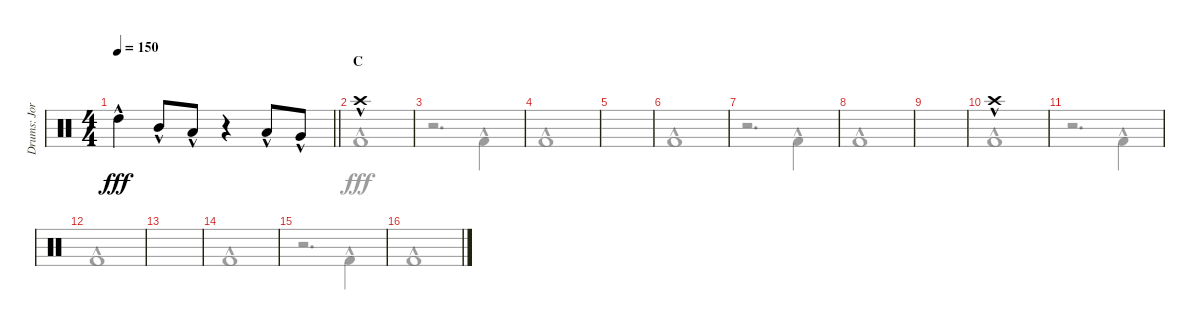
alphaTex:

\track ("Drums: Jorg" "Drums: Jor") {instrument percussion}
\staff {score}
\articulation defaults
\voice
\ts (4 4)
\tempo 150
\clef neutral
\barLineRight lightlight
\ks c "High Tom (hit)"{hac}.4{dy fff} "Mid Tom (hit)"{hac}.8 "Low Tom (hit)"{hac}.8
r.4 "Low Tom (hit)"{hac}.8 "Very Low Tom (hit)"{hac}.8 |
\section ("" "C")
"Crash high (hit)"{hac}.1 |
|
|
|
|
|
|
|
"Crash high (hit)"{hac}.1 |
|
|
|
|
|
\voice
\clef neutral
\ottava regular
\simile none
\barLineRight lightlight
\ks c
|
"Kick (hit) 2"{hac}.1 |
r.2{d} "Kick (hit) 2"{hac}.4 |
"Kick (hit) 2"{hac}.1 |
|
"Kick (hit) 2"{hac}.1 |
r.2{d} "Kick (hit) 2"{hac}.4 |
"Kick (hit) 2"{hac}.1 |
|
"Kick (hit) 2"{hac}.1 |
r.2{d} "Kick (hit) 2"{hac}.4 |
"Kick (hit) 2"{hac}.1 |
|
"Kick (hit) 2"{hac}.1 |
r.2{d} "Kick (hit) 2"{hac}.4 |
"Kick (hit) 2"{hac}.1
